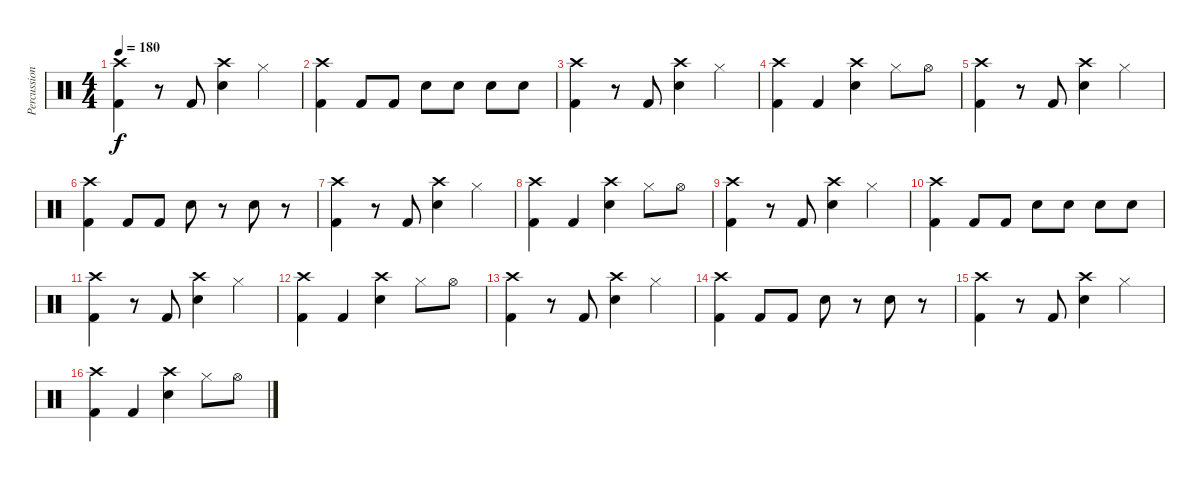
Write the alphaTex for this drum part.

\track ("Percussion" "Percussion") {instrument percussion}
\staff {score}
\articulation defaults
\ts (4 4)
\tempo 180
\clef neutral
\ks c
("Crash high (hit)" "Kick (hit) 2").4{dy f} r.8 "Kick (hit) 2".8 ("Crash high (hit)" "Electric Snare (hit)").4 "Hi-Hat (closed)".4 |
("Crash high (hit)" "Kick (hit) 2").4 "Kick (hit) 2".8 "Kick (hit) 2".8 "Electric Snare (hit)".8 "Electric Snare (hit)".8 "Electric Snare (hit)".8 "Electric Snare (hit)".8 |
("Crash high (hit)" "Kick (hit) 2").4 r.8 "Kick (hit) 2".8 ("Crash high (hit)" "Electric Snare (hit)").4 "Hi-Hat (closed)".4 |
("Crash high (hit)" "Kick (hit) 2").4 "Kick (hit) 2".4 ("Crash high (hit)" "Electric Snare (hit)").4 "Hi-Hat (closed)".8 "Hi-Hat (open)".8 |
("Crash high (hit)" "Kick (hit) 2").4 r.8 "Kick (hit) 2".8 ("Crash high (hit)" "Electric Snare (hit)").4 "Hi-Hat (closed)".4 |
("Crash high (hit)" "Kick (hit) 2").4 "Kick (hit) 2".8 "Kick (hit) 2".8 "Electric Snare (hit)".8 r.8 "Electric Snare (hit)".8 r.8 |
("Crash high (hit)" "Kick (hit) 2").4 r.8 "Kick (hit) 2".8 ("Crash high (hit)" "Electric Snare (hit)").4 "Hi-Hat (closed)".4 |
("Crash high (hit)" "Kick (hit) 2").4 "Kick (hit) 2".4 ("Crash high (hit)" "Electric Snare (hit)").4 "Hi-Hat (closed)".8 "Hi-Hat (open)".8 |
("Crash high (hit)" "Kick (hit) 2").4 r.8 "Kick (hit) 2".8 ("Crash high (hit)" "Electric Snare (hit)").4 "Hi-Hat (closed)".4 |
("Crash high (hit)" "Kick (hit) 2").4 "Kick (hit) 2".8 "Kick (hit) 2".8 "Electric Snare (hit)".8 "Electric Snare (hit)".8 "Electric Snare (hit)".8 "Electric Snare (hit)".8 |
("Crash high (hit)" "Kick (hit) 2").4 r.8 "Kick (hit) 2".8 ("Crash high (hit)" "Electric Snare (hit)").4 "Hi-Hat (closed)".4 |
("Crash high (hit)" "Kick (hit) 2").4 "Kick (hit) 2".4 ("Crash high (hit)" "Electric Snare (hit)").4 "Hi-Hat (closed)".8 "Hi-Hat (open)".8 |
("Crash high (hit)" "Kick (hit) 2").4 r.8 "Kick (hit) 2".8 ("Crash high (hit)" "Electric Snare (hit)").4 "Hi-Hat (closed)".4 |
("Crash high (hit)" "Kick (hit) 2").4 "Kick (hit) 2".8 "Kick (hit) 2".8 "Electric Snare (hit)".8 r.8 "Electric Snare (hit)".8 r.8 |
("Crash high (hit)" "Kick (hit) 2").4 r.8 "Kick (hit) 2".8 ("Crash high (hit)" "Electric Snare (hit)").4 "Hi-Hat (closed)".4 |
("Crash high (hit)" "Kick (hit) 2").4 "Kick (hit) 2".4 ("Crash high (hit)" "Electric Snare (hit)").4 "Hi-Hat (closed)".8 "Hi-Hat (open)".8
